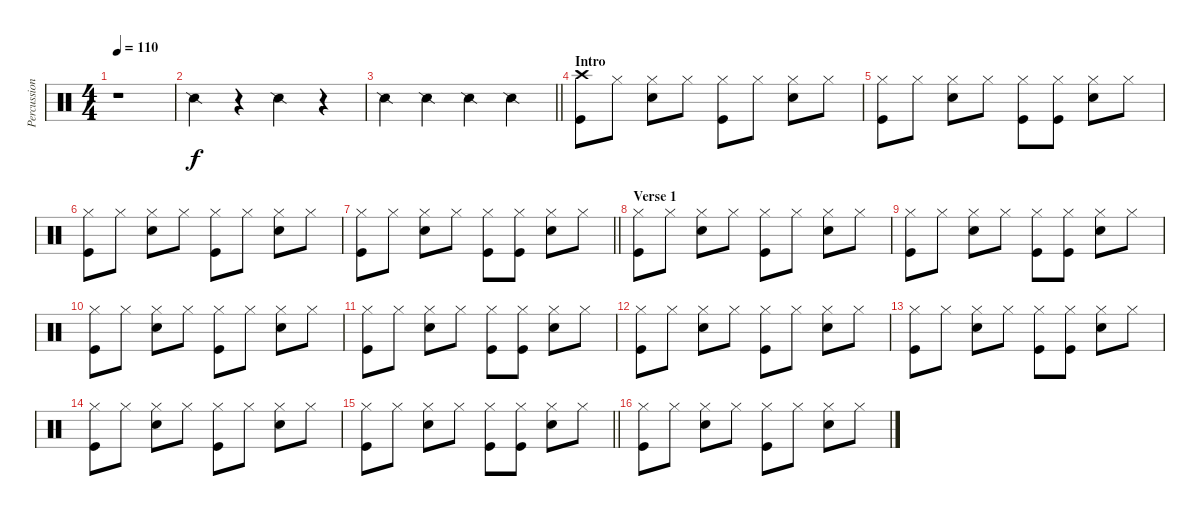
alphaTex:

\track ("Percussion" "Percussion") {instrument percussion}
\staff {score}
\articulation defaults
\ts (4 4)
\tempo 110
\clef neutral
\ks c
r.1{dy f} |
"Snare (side stick) 2".4 r.4 "Snare (side stick) 2".4 r.4 |
\barLineRight lightlight "Snare (side stick) 2".4 "Snare (side stick) 2".4 "Snare (side stick) 2".4 "Snare (side stick) 2".4
|
\section ("" "Intro")
("Crash high (hit)" "Kick (hit)").8 "Hi-Hat (closed)".8 ("Hi-Hat (closed)" "Snare (hit) 2").8 "Hi-Hat (closed)".8 ("Hi-Hat (closed)" "Kick (hit)").8 "Hi-Hat (closed)".8 ("Hi-Hat (closed)" "Snare (hit) 2").8 "Hi-Hat (closed)".8 |
("Hi-Hat (closed)" "Kick (hit)").8 "Hi-Hat (closed)".8 ("Hi-Hat (closed)" "Snare (hit) 2").8 "Hi-Hat (closed)".8 ("Hi-Hat (closed)" "Kick (hit)").8 ("Hi-Hat (closed)" "Kick (hit)").8 ("Hi-Hat (closed)" "Snare (hit) 2").8 "Hi-Hat (closed)".8 |
("Hi-Hat (closed)" "Kick (hit)").8 "Hi-Hat (closed)".8 ("Hi-Hat (closed)" "Snare (hit) 2").8 "Hi-Hat (closed)".8 ("Hi-Hat (closed)" "Kick (hit)").8 "Hi-Hat (closed)".8 ("Hi-Hat (closed)" "Snare (hit) 2").8 "Hi-Hat (closed)".8 |
\barLineRight lightlight
("Hi-Hat (closed)" "Kick (hit)").8 "Hi-Hat (closed)".8 ("Hi-Hat (closed)" "Snare (hit) 2").8 "Hi-Hat (closed)".8 ("Hi-Hat (closed)" "Kick (hit)").8 ("Hi-Hat (closed)" "Kick (hit)").8 ("Hi-Hat (closed)" "Snare (hit) 2").8 "Hi-Hat (closed)".8 |
\section ("" "Verse 1")
("Hi-Hat (closed)" "Kick (hit)").8 "Hi-Hat (closed)".8 ("Hi-Hat (closed)" "Snare (hit) 2").8 "Hi-Hat (closed)".8 ("Hi-Hat (closed)" "Kick (hit)").8 "Hi-Hat (closed)".8 ("Hi-Hat (closed)" "Snare (hit) 2").8 "Hi-Hat (closed)".8 |
("Hi-Hat (closed)" "Kick (hit)").8 "Hi-Hat (closed)".8 ("Hi-Hat (closed)" "Snare (hit) 2").8 "Hi-Hat (closed)".8 ("Hi-Hat (closed)" "Kick (hit)").8 ("Hi-Hat (closed)" "Kick (hit)").8 ("Hi-Hat (closed)" "Snare (hit) 2").8 "Hi-Hat (closed)".8 |
("Hi-Hat (closed)" "Kick (hit)").8 "Hi-Hat (closed)".8 ("Hi-Hat (closed)" "Snare (hit) 2").8 "Hi-Hat (closed)".8 ("Hi-Hat (closed)" "Kick (hit)").8 "Hi-Hat (closed)".8 ("Hi-Hat (closed)" "Snare (hit) 2").8 "Hi-Hat (closed)".8 |
("Hi-Hat (closed)" "Kick (hit)").8 "Hi-Hat (closed)".8 ("Hi-Hat (closed)" "Snare (hit) 2").8 "Hi-Hat (closed)".8 ("Hi-Hat (closed)" "Kick (hit)").8 ("Hi-Hat (closed)" "Kick (hit)").8 ("Hi-Hat (closed)" "Snare (hit) 2").8 "Hi-Hat (closed)".8 |
("Hi-Hat (closed)" "Kick (hit)").8 "Hi-Hat (closed)".8 ("Hi-Hat (closed)" "Snare (hit) 2").8 "Hi-Hat (closed)".8 ("Hi-Hat (closed)" "Kick (hit)").8 "Hi-Hat (closed)".8 ("Hi-Hat (closed)" "Snare (hit) 2").8 "Hi-Hat (closed)".8 |
("Hi-Hat (closed)" "Kick (hit)").8 "Hi-Hat (closed)".8 ("Hi-Hat (closed)" "Snare (hit) 2").8 "Hi-Hat (closed)".8 ("Hi-Hat (closed)" "Kick (hit)").8 ("Hi-Hat (closed)" "Kick (hit)").8 ("Hi-Hat (closed)" "Snare (hit) 2").8 "Hi-Hat (closed)".8 |
("Hi-Hat (closed)" "Kick (hit)").8 "Hi-Hat (closed)".8 ("Hi-Hat (closed)" "Snare (hit) 2").8 "Hi-Hat (closed)".8 ("Hi-Hat (closed)" "Kick (hit)").8 "Hi-Hat (closed)".8 ("Hi-Hat (closed)" "Snare (hit) 2").8 "Hi-Hat (closed)".8 |
\barLineRight lightlight
("Hi-Hat (closed)" "Kick (hit)").8 "Hi-Hat (closed)".8 ("Hi-Hat (closed)" "Snare (hit) 2").8 "Hi-Hat (closed)".8 ("Hi-Hat (closed)" "Kick (hit)").8 ("Hi-Hat (closed)" "Kick (hit)").8 ("Hi-Hat (closed)" "Snare (hit) 2").8 "Hi-Hat (closed)".8 |
("Hi-Hat (closed)" "Kick (hit)").8 "Hi-Hat (closed)".8 ("Hi-Hat (closed)" "Snare (hit) 2").8 "Hi-Hat (closed)".8 ("Hi-Hat (closed)" "Kick (hit)").8 "Hi-Hat (closed)".8 ("Hi-Hat (closed)" "Snare (hit) 2").8 "Hi-Hat (closed)".8
